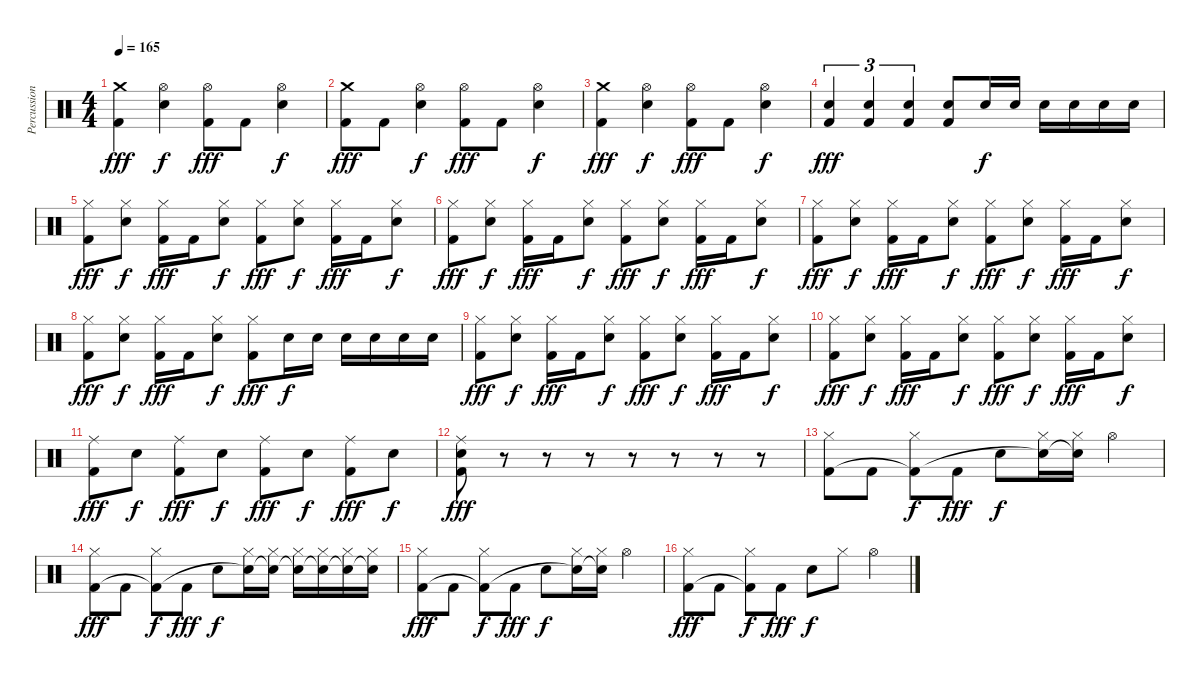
\track ("Percussion" "Percussion") {instrument percussion}
\staff {score}
\articulation defaults
\ts (4 4)
\tempo 165
\clef neutral
\ks c
("Crash medium (hit)" "Kick (hit) 2").4{dy fff} ("Hi-Hat (open)" "Electric Snare (hit)").4{dy f} ("Hi-Hat (open)" "Kick (hit) 2").8{dy fff} "Kick (hit) 2".8 ("Hi-Hat (open)" "Electric Snare (hit)").4{dy f} |
("Crash medium (hit)" "Kick (hit) 2").8{dy fff} "Kick (hit) 2".8 ("Hi-Hat (open)" "Electric Snare (hit)").4{dy f} ("Hi-Hat (open)" "Kick (hit) 2").8{dy fff} "Kick (hit) 2".8 ("Hi-Hat (open)" "Electric Snare (hit)").4{dy f} |
("Crash medium (hit)" "Kick (hit) 2").4{dy fff} ("Hi-Hat (open)" "Electric Snare (hit)").4{dy f} ("Hi-Hat (open)" "Kick (hit) 2").8{dy fff} "Kick (hit) 2".8 ("Hi-Hat (open)" "Electric Snare (hit)").4{dy f} |
("Electric Snare (hit)" "Kick (hit) 2").4{tu (3 2) dy fff} ("Electric Snare (hit)" "Kick (hit) 2").4{tu (3 2)} ("Electric Snare (hit)" "Kick (hit) 2").4{tu (3 2)} ("Electric Snare (hit)" "Kick (hit) 2").8 "Electric Snare (hit)".16{dy f} "Electric Snare (hit)".16 "Electric Snare (hit)".16 "Electric Snare (hit)".16 "Electric Snare (hit)".16 "Electric Snare (hit)".16 |
("Hi-Hat (closed)" "Kick (hit) 2").8{dy fff} ("Hi-Hat (closed)" "Electric Snare (hit)").8{dy f} ("Hi-Hat (closed)" "Kick (hit) 2").16{dy fff} "Kick (hit) 2".16 ("Hi-Hat (closed)" "Electric Snare (hit)").8{dy f} ("Hi-Hat (closed)" "Kick (hit) 2").8{dy fff} ("Hi-Hat (closed)" "Electric Snare (hit)").8{dy f} ("Hi-Hat (closed)" "Kick (hit) 2").16{dy fff} "Kick (hit) 2".16 ("Hi-Hat (closed)" "Electric Snare (hit)").8{dy f} |
("Hi-Hat (closed)" "Kick (hit) 2").8{dy fff} ("Hi-Hat (closed)" "Electric Snare (hit)").8{dy f} ("Hi-Hat (closed)" "Kick (hit) 2").16{dy fff} "Kick (hit) 2".16 ("Hi-Hat (closed)" "Electric Snare (hit)").8{dy f} ("Hi-Hat (closed)" "Kick (hit) 2").8{dy fff} ("Hi-Hat (closed)" "Electric Snare (hit)").8{dy f} ("Hi-Hat (closed)" "Kick (hit) 2").16{dy fff} "Kick (hit) 2".16 ("Hi-Hat (closed)" "Electric Snare (hit)").8{dy f} |
("Hi-Hat (closed)" "Kick (hit) 2").8{dy fff} ("Hi-Hat (closed)" "Electric Snare (hit)").8{dy f} ("Hi-Hat (closed)" "Kick (hit) 2").16{dy fff} "Kick (hit) 2".16 ("Hi-Hat (closed)" "Electric Snare (hit)").8{dy f} ("Hi-Hat (closed)" "Kick (hit) 2").8{dy fff} ("Hi-Hat (closed)" "Electric Snare (hit)").8{dy f} ("Hi-Hat (closed)" "Kick (hit) 2").16{dy fff} "Kick (hit) 2".16 ("Hi-Hat (closed)" "Electric Snare (hit)").8{dy f} |
("Hi-Hat (closed)" "Kick (hit) 2").8{dy fff} ("Hi-Hat (closed)" "Electric Snare (hit)").8{dy f} ("Hi-Hat (closed)" "Kick (hit) 2").16{dy fff} "Kick (hit) 2".16 ("Hi-Hat (closed)" "Electric Snare (hit)").8{dy f} ("Hi-Hat (closed)" "Kick (hit) 2").8{dy fff} "Electric Snare (hit)".16{dy f} "Electric Snare (hit)".16 "Electric Snare (hit)".16 "Electric Snare (hit)".16 "Electric Snare (hit)".16 "Electric Snare (hit)".16 |
("Hi-Hat (closed)" "Kick (hit) 2").8{dy fff} ("Hi-Hat (closed)" "Electric Snare (hit)").8{dy f} ("Hi-Hat (closed)" "Kick (hit) 2").16{dy fff} "Kick (hit) 2".16 ("Hi-Hat (closed)" "Electric Snare (hit)").8{dy f} ("Hi-Hat (closed)" "Kick (hit) 2").8{dy fff} ("Hi-Hat (closed)" "Electric Snare (hit)").8{dy f} ("Hi-Hat (closed)" "Kick (hit) 2").16{dy fff} "Kick (hit) 2".16 ("Hi-Hat (closed)" "Electric Snare (hit)").8{dy f} |
("Hi-Hat (closed)" "Kick (hit) 2").8{dy fff} ("Hi-Hat (closed)" "Electric Snare (hit)").8{dy f} ("Hi-Hat (closed)" "Kick (hit) 2").16{dy fff} "Kick (hit) 2".16 ("Hi-Hat (closed)" "Electric Snare (hit)").8{dy f} ("Hi-Hat (closed)" "Kick (hit) 2").8{dy fff} ("Hi-Hat (closed)" "Electric Snare (hit)").8{dy f} ("Hi-Hat (closed)" "Kick (hit) 2").16{dy fff} "Kick (hit) 2".16 ("Hi-Hat (closed)" "Electric Snare (hit)").8{dy f} |
("Ride (middle)" "Kick (hit) 2").8{dy fff} "Electric Snare (hit)".8{dy f} ("Ride (middle)" "Kick (hit) 2").8{dy fff} "Electric Snare (hit)".8{dy f} ("Ride (middle)" "Kick (hit) 2").8{dy fff} "Electric Snare (hit)".8{dy f} ("Ride (middle)" "Kick (hit) 2").8{dy fff} "Electric Snare (hit)".8{dy f} |
("Ride (middle)" "Electric Snare (hit)" "Kick (hit) 2").8{dy fff} r.8 r.8 r.8 r.8 r.8 r.8 r.8 |
("Hi-Hat (closed)" "Kick (hit) 2").8 "Kick (hit) 2".8 ("Hi-Hat (closed)" "Kick (hit) 2"{t}).8{dy f} "Kick (hit) 2".8{dy fff} "Electric Snare (hit)".8{dy f} ("Hi-Hat (closed)" "Electric Snare (hit)"{t}).16 ("Hi-Hat (closed)" "Electric Snare (hit)"{t}).16 "Hi-Hat (open)".4 |
("Hi-Hat (closed)" "Kick (hit) 2").8{dy fff} "Kick (hit) 2".8 ("Hi-Hat (closed)" "Kick (hit) 2"{t}).8{dy f} "Kick (hit) 2".8{dy fff} "Electric Snare (hit)".8{dy f} ("Hi-Hat (closed)" "Electric Snare (hit)"{t}).16 ("Hi-Hat (closed)" "Electric Snare (hit)"{t}).16 ("Hi-Hat (closed)" "Electric Snare (hit)"{t}).16 ("Hi-Hat (closed)" "Electric Snare (hit)"{t}).16 ("Hi-Hat (closed)" "Electric Snare (hit)"{t}).16 ("Hi-Hat (closed)" "Electric Snare (hit)"{t}).16 |
("Hi-Hat (closed)" "Kick (hit) 2").8{dy fff} "Kick (hit) 2".8 ("Hi-Hat (closed)" "Kick (hit) 2"{t}).8{dy f} "Kick (hit) 2".8{dy fff} "Electric Snare (hit)".8{dy f} ("Hi-Hat (closed)" "Electric Snare (hit)"{t}).16 ("Hi-Hat (closed)" "Electric Snare (hit)"{t}).16 "Hi-Hat (open)".4 |
("Hi-Hat (closed)" "Kick (hit) 2").8{dy fff} "Kick (hit) 2".8 ("Hi-Hat (closed)" "Kick (hit) 2"{t}).8{dy f} "Kick (hit) 2".8{dy fff} "Electric Snare (hit)".8{dy f} "Hi-Hat (closed)".8 "Hi-Hat (open)".4
